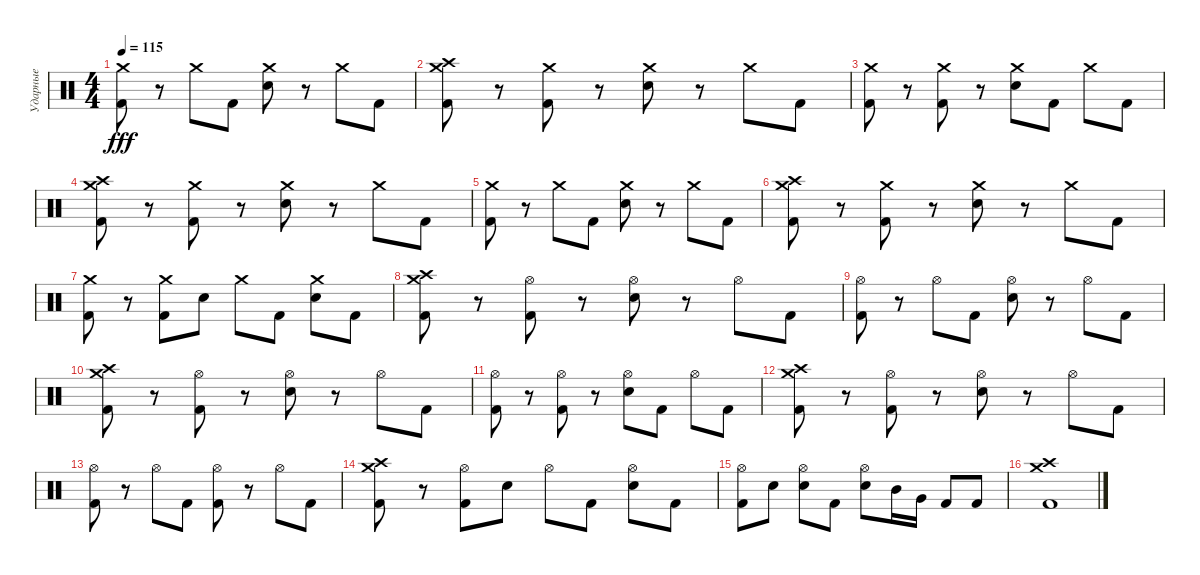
\track ("Ударные" "Ударные") {instrument percussion}
\staff {score}
\articulation defaults
\ts (4 4)
\tempo 115
\clef neutral
\ks c
("Crash medium (hit)" "Kick (hit) 2").8{dy fff} r.8 "Crash medium (hit)".8 "Kick (hit) 2".8 ("Crash medium (hit)" "Snare (hit) 2").8 r.8 "Crash medium (hit)".8 "Kick (hit) 2".8 |
("Crash high (hit)" "Crash medium (hit)" "Kick (hit) 2").8 r.8 ("Crash medium (hit)" "Kick (hit) 2").8 r.8 ("Crash medium (hit)" "Snare (hit) 2").8 r.8 "Crash medium (hit)".8 "Kick (hit) 2".8 |
("Crash medium (hit)" "Kick (hit) 2").8 r.8 ("Crash medium (hit)" "Kick (hit) 2").8 r.8 ("Crash medium (hit)" "Snare (hit) 2").8 "Kick (hit) 2".8 "Crash medium (hit)".8 "Kick (hit) 2".8 |
("Crash high (hit)" "Crash medium (hit)" "Kick (hit) 2").8 r.8 ("Crash medium (hit)" "Kick (hit) 2").8 r.8 ("Crash medium (hit)" "Snare (hit) 2").8 r.8 "Crash medium (hit)".8 "Kick (hit) 2".8 |
("Crash medium (hit)" "Kick (hit) 2").8 r.8 "Crash medium (hit)".8 "Kick (hit) 2".8 ("Crash medium (hit)" "Snare (hit) 2").8 r.8 "Crash medium (hit)".8 "Kick (hit) 2".8 |
("Crash high (hit)" "Crash medium (hit)" "Kick (hit) 2").8 r.8 ("Crash medium (hit)" "Kick (hit) 2").8 r.8 ("Crash medium (hit)" "Snare (hit) 2").8 r.8 "Crash medium (hit)".8 "Kick (hit) 2".8 |
("Crash medium (hit)" "Kick (hit) 2").8 r.8 ("Crash medium (hit)" "Kick (hit) 2").8 "Snare (hit) 2".8 "Crash medium (hit)".8 "Kick (hit) 2".8 ("Crash medium (hit)" "Snare (hit) 2").8 "Kick (hit) 2".8 |
("Crash high (hit)" "Crash medium (hit)" "Kick (hit) 2").8 r.8 ("Hi-Hat (open)" "Kick (hit) 2").8 r.8 ("Hi-Hat (open)" "Snare (hit) 2").8 r.8 "Hi-Hat (open)".8 "Kick (hit) 2".8 |
("Hi-Hat (open)" "Kick (hit) 2").8 r.8 "Hi-Hat (open)".8 "Kick (hit) 2".8 ("Hi-Hat (open)" "Snare (hit) 2").8 r.8 "Hi-Hat (open)".8 "Kick (hit) 2".8 |
("Crash high (hit)" "Crash medium (hit)" "Kick (hit) 2").8 r.8 ("Hi-Hat (open)" "Kick (hit) 2").8 r.8 ("Hi-Hat (open)" "Snare (hit) 2").8 r.8 "Hi-Hat (open)".8 "Kick (hit) 2".8 |
("Hi-Hat (open)" "Kick (hit) 2").8 r.8 ("Hi-Hat (open)" "Kick (hit) 2").8 r.8 ("Hi-Hat (open)" "Snare (hit) 2").8 "Kick (hit) 2".8 "Hi-Hat (open)".8 "Kick (hit) 2".8 |
("Crash high (hit)" "Crash medium (hit)" "Kick (hit) 2").8 r.8 ("Hi-Hat (open)" "Kick (hit) 2").8 r.8 ("Hi-Hat (open)" "Snare (hit) 2").8 r.8 "Hi-Hat (open)".8 "Kick (hit) 2".8 |
("Hi-Hat (open)" "Kick (hit) 2").8 r.8 "Hi-Hat (open)".8 "Kick (hit) 2".8 ("Hi-Hat (open)" "Kick (hit) 2").8 r.8 "Hi-Hat (open)".8 "Kick (hit) 2".8 |
("Crash high (hit)" "Crash medium (hit)" "Kick (hit) 2").8 r.8 ("Hi-Hat (open)" "Kick (hit) 2").8 "Snare (hit) 2".8 "Hi-Hat (open)".8 "Kick (hit) 2".8 ("Hi-Hat (open)" "Snare (hit) 2").8 "Kick (hit) 2".8 |
("Hi-Hat (open)" "Kick (hit) 2").8 "Snare (hit) 2".8 ("Hi-Hat (open)" "Snare (hit) 2").8 "Kick (hit) 2".8 ("Hi-Hat (open)" "Snare (hit) 2").8 "Mid Tom (hit)".16 "Very Low Tom (hit)".16 "Kick (hit) 2".8 "Kick (hit) 2".8 |
("Crash high (hit)" "Crash medium (hit)" "Kick (hit) 2").1
